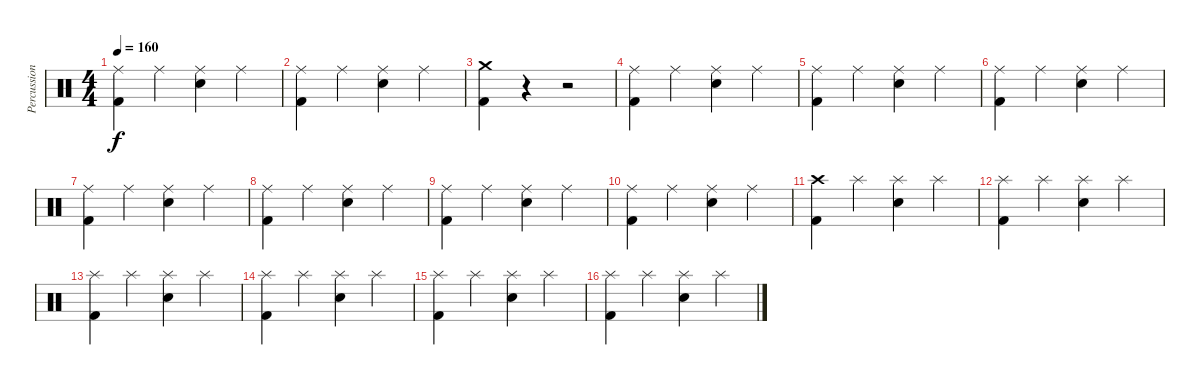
\track ("Percussion" "Percussion") {instrument percussion}
\staff {score}
\articulation defaults
\ts (4 4)
\tempo 160
\clef neutral
\ks c
("Ride (middle)" "Kick (hit) 2").4{dy f} "Ride (middle)".4 ("Ride (middle)" "Electric Snare (hit)").4 "Ride (middle)".4 |
("Ride (middle)" "Kick (hit) 2").4 "Ride (middle)".4 ("Ride (middle)" "Electric Snare (hit)").4 "Ride (middle)".4 |
("Crash medium (hit)" "Kick (hit) 2").4 r.4 r.2 |
("Ride (middle)" "Kick (hit) 2").4 "Ride (middle)".4 ("Ride (middle)" "Electric Snare (hit)").4 "Ride (middle)".4 |
("Ride (middle)" "Kick (hit) 2").4 "Ride (middle)".4 ("Ride (middle)" "Electric Snare (hit)").4 "Ride (middle)".4 |
("Ride (middle)" "Kick (hit) 2").4 "Ride (middle)".4 ("Ride (middle)" "Electric Snare (hit)").4 "Ride (middle)".4 |
("Ride (middle)" "Kick (hit) 2").4 "Ride (middle)".4 ("Ride (middle)" "Electric Snare (hit)").4 "Ride (middle)".4 |
("Ride (middle)" "Kick (hit) 2").4 "Ride (middle)".4 ("Ride (middle)" "Electric Snare (hit)").4 "Ride (middle)".4 |
("Ride (middle)" "Kick (hit) 2").4 "Ride (middle)".4 ("Ride (middle)" "Electric Snare (hit)").4 "Ride (middle)".4 |
("Ride (middle)" "Kick (hit) 2").4 "Ride (middle)".4 ("Ride (middle)" "Electric Snare (hit)").4 "Ride (middle)".4 |
("Crash high (hit)" "Kick (hit) 2").4 "Splash (hit)".4 ("Splash (hit)" "Electric Snare (hit)").4 "Splash (hit)".4 |
("Splash (hit)" "Kick (hit) 2").4 "Splash (hit)".4 ("Splash (hit)" "Electric Snare (hit)").4 "Splash (hit)".4 |
("Splash (hit)" "Kick (hit) 2").4 "Splash (hit)".4 ("Splash (hit)" "Electric Snare (hit)").4 "Splash (hit)".4 |
("Splash (hit)" "Kick (hit) 2").4 "Splash (hit)".4 ("Splash (hit)" "Electric Snare (hit)").4 "Splash (hit)".4 |
("Splash (hit)" "Kick (hit) 2").4 "Splash (hit)".4 ("Splash (hit)" "Electric Snare (hit)").4 "Splash (hit)".4 |
("Splash (hit)" "Kick (hit) 2").4 "Splash (hit)".4 ("Splash (hit)" "Electric Snare (hit)").4 "Splash (hit)".4
